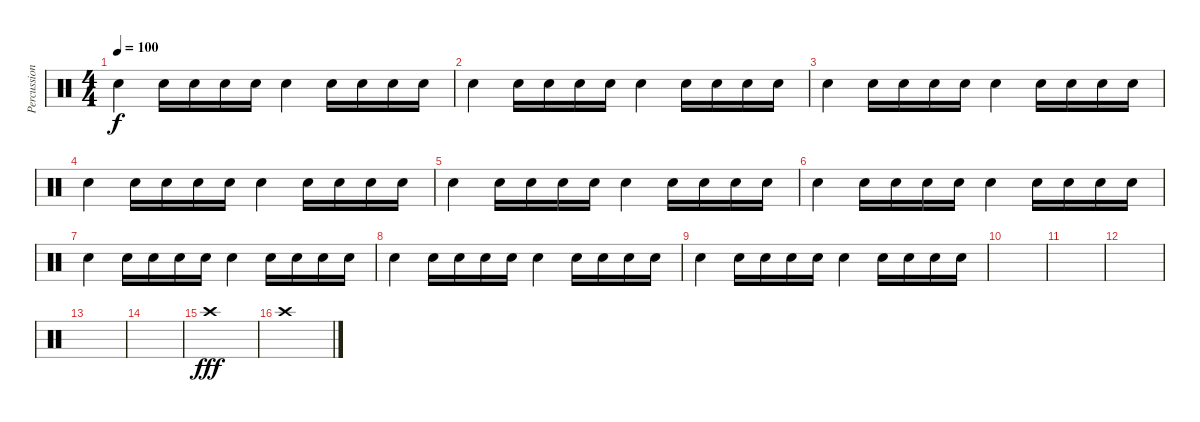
\track ("Percussions" "Percussion") {instrument percussion}
\staff {score}
\articulation defaults
\ts (4 4)
\tempo 100
\clef neutral
\ks c "Electric Snare (hit)".4{dy f} "Electric Snare (hit)".16 "Electric Snare (hit)".16 "Electric Snare (hit)".16 "Electric Snare (hit)".16 "Electric Snare (hit)".4 "Electric Snare (hit)".16 "Electric Snare (hit)".16 "Electric Snare (hit)".16 "Electric Snare (hit)".16
|
"Electric Snare (hit)".4 "Electric Snare (hit)".16 "Electric Snare (hit)".16 "Electric Snare (hit)".16 "Electric Snare (hit)".16 "Electric Snare (hit)".4 "Electric Snare (hit)".16 "Electric Snare (hit)".16 "Electric Snare (hit)".16 "Electric Snare (hit)".16 |
"Electric Snare (hit)".4 "Electric Snare (hit)".16 "Electric Snare (hit)".16 "Electric Snare (hit)".16 "Electric Snare (hit)".16 "Electric Snare (hit)".4 "Electric Snare (hit)".16 "Electric Snare (hit)".16 "Electric Snare (hit)".16 "Electric Snare (hit)".16 |
"Electric Snare (hit)".4 "Electric Snare (hit)".16 "Electric Snare (hit)".16 "Electric Snare (hit)".16 "Electric Snare (hit)".16 "Electric Snare (hit)".4 "Electric Snare (hit)".16 "Electric Snare (hit)".16 "Electric Snare (hit)".16 "Electric Snare (hit)".16 |
"Electric Snare (hit)".4 "Electric Snare (hit)".16 "Electric Snare (hit)".16 "Electric Snare (hit)".16 "Electric Snare (hit)".16 "Electric Snare (hit)".4 "Electric Snare (hit)".16 "Electric Snare (hit)".16 "Electric Snare (hit)".16 "Electric Snare (hit)".16 |
"Electric Snare (hit)".4 "Electric Snare (hit)".16 "Electric Snare (hit)".16 "Electric Snare (hit)".16 "Electric Snare (hit)".16 "Electric Snare (hit)".4 "Electric Snare (hit)".16 "Electric Snare (hit)".16 "Electric Snare (hit)".16 "Electric Snare (hit)".16 |
"Electric Snare (hit)".4 "Electric Snare (hit)".16 "Electric Snare (hit)".16 "Electric Snare (hit)".16 "Electric Snare (hit)".16 "Electric Snare (hit)".4 "Electric Snare (hit)".16 "Electric Snare (hit)".16 "Electric Snare (hit)".16 "Electric Snare (hit)".16 |
"Electric Snare (hit)".4 "Electric Snare (hit)".16 "Electric Snare (hit)".16 "Electric Snare (hit)".16 "Electric Snare (hit)".16 "Electric Snare (hit)".4 "Electric Snare (hit)".16 "Electric Snare (hit)".16 "Electric Snare (hit)".16 "Electric Snare (hit)".16 |
"Electric Snare (hit)".4 "Electric Snare (hit)".16 "Electric Snare (hit)".16 "Electric Snare (hit)".16 "Electric Snare (hit)".16 "Electric Snare (hit)".4 "Electric Snare (hit)".16 "Electric Snare (hit)".16 "Electric Snare (hit)".16 "Electric Snare (hit)".16 |
|
|
|
|
|
"Crash high (hit)".1{dy fff} |
"Crash high (hit)".1
